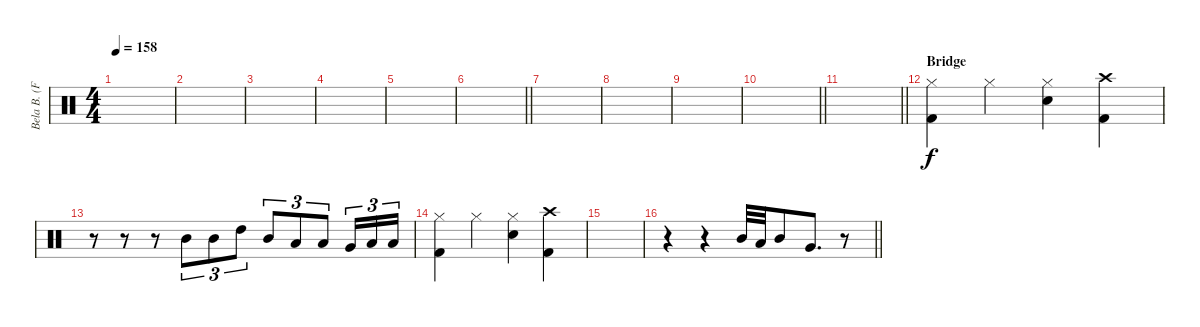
\track ("Bela B. (Felsenheimer)" "Bela B. (F") {instrument percussion}
\staff {score}
\articulation defaults
\ts (4 4)
\tempo 158
\clef neutral
\ks c
|
|
|
|
|
\barLineRight lightlight
|
|
|
|
\barLineRight lightlight
|
\barLineRight lightlight
|
\section ("" "Bridge")
("Kick (hit) 2" "Hi-Hat (closed)").4 "Hi-Hat (closed)".4 ("Electric Snare (hit)" "Hi-Hat (closed)").4 ("Crash high (hit)" "Kick (hit) 2").4 |
r.8 r.8 r.8 "Mid Tom (hit)".8{tu (3 2)} "Mid Tom (hit)".8{tu (3 2)} "High Tom (hit)".8{tu (3 2)} "Mid Tom (hit)".8{tu (3 2)} "Low Tom (hit)".8{tu (3 2)} "Low Tom (hit)".8{tu (3 2)} "Very Low Tom (hit)".16{tu (3 2)} "Low Floor Tom (hit)".16{tu (3 2)} "Low Floor Tom (hit)".16{tu (3 2)} |
("Kick (hit) 2" "Hi-Hat (closed)").4 "Hi-Hat (closed)".4 ("Electric Snare (hit)" "Hi-Hat (closed)").4 ("Crash high (hit)" "Kick (hit) 2").4 |
|
\barLineRight lightlight
r.4 r.4 "Mid Tom (hit)".32 "Low Tom (hit)".32 "Mid Tom (hit)".8 "Very Low Tom (hit)".8{d} r.8
